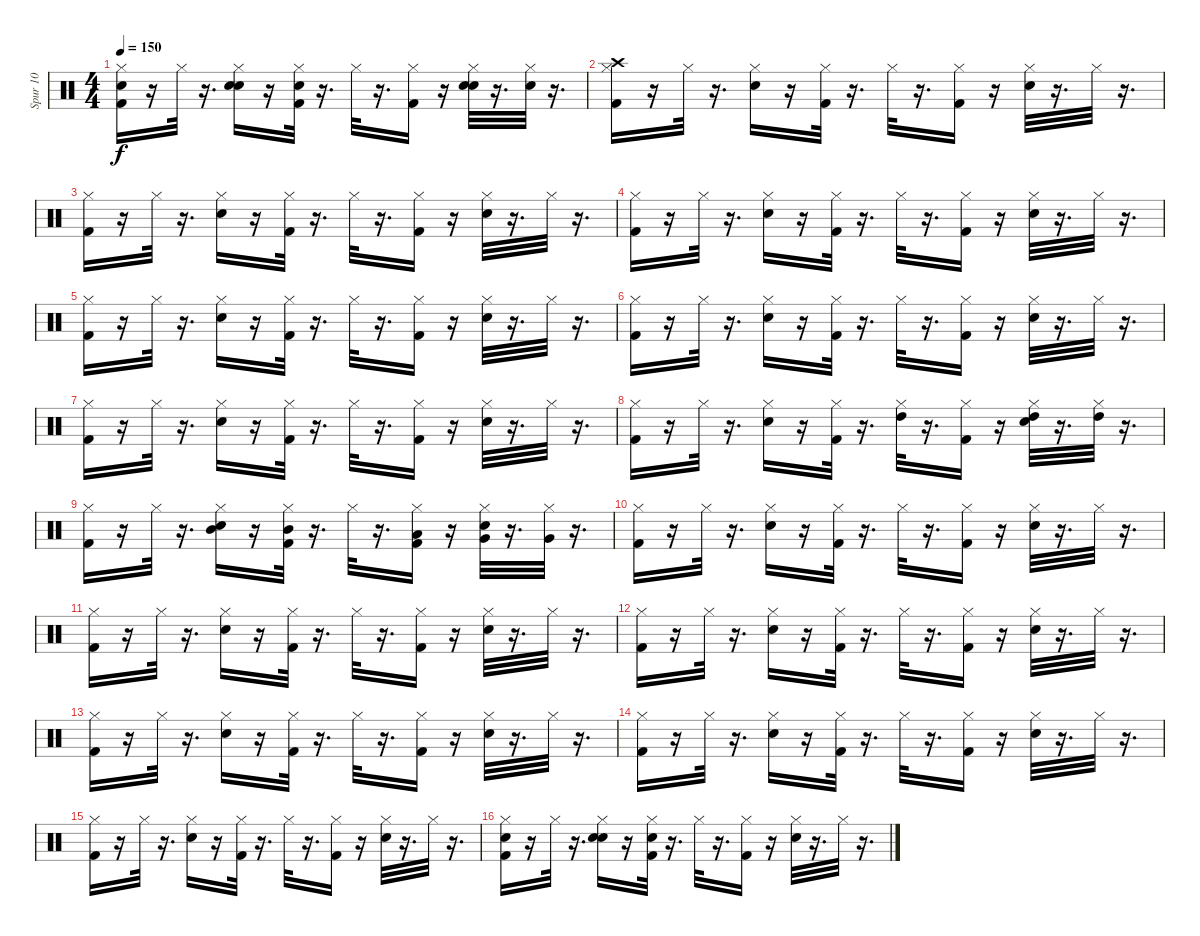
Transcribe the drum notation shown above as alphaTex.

\track ("Spur 10" "Spur 10") {instrument percussion}
\staff {score}
\articulation defaults
\ts (4 4)
\tempo 150
\clef neutral
\ks c
("Hand Clap (hit)" "Kick (hit) 2" "Hi-Hat (closed)").16{dy f} r.16 "Hi-Hat (closed)".32 r.16{d} ("Electric Snare (hit)" "Hand Clap (hit)" "Hi-Hat (closed)").16 r.16 ("Kick (hit) 2" "Hand Clap (hit)" "Hi-Hat (closed)").32 r.16{d} "Hi-Hat (closed)".32 r.16{d} ("Kick (hit) 2" "Hi-Hat (closed)").16 r.16 ("Electric Snare (hit)" "Hi-Hat (closed)" "Hand Clap (hit)").32 r.16{d} ("Hi-Hat (closed)" "Hand Clap (hit)").32 r.16{d} |
("Hi-Hat (closed)" "Crash high (hit)" "Kick (hit) 2").16 r.16 "Hi-Hat (closed)".32 r.16{d} ("Electric Snare (hit)" "Hi-Hat (closed)").16 r.16 ("Hi-Hat (closed)" "Kick (hit) 2").32 r.16{d} "Hi-Hat (closed)".32 r.16{d} ("Hi-Hat (closed)" "Kick (hit) 2").16 r.16 ("Hi-Hat (closed)" "Electric Snare (hit)").32 r.16{d} "Hi-Hat (closed)".32 r.16{d} |
("Hi-Hat (closed)" "Kick (hit) 2").16 r.16 "Hi-Hat (closed)".32 r.16{d} ("Electric Snare (hit)" "Hi-Hat (closed)").16 r.16 ("Kick (hit) 2" "Hi-Hat (closed)").32 r.16{d} "Hi-Hat (closed)".32 r.16{d} ("Kick (hit) 2" "Hi-Hat (closed)").16 r.16 ("Electric Snare (hit)" "Hi-Hat (closed)").32 r.16{d} "Hi-Hat (closed)".32 r.16{d} |
("Hi-Hat (closed)" "Kick (hit) 2").16 r.16 "Hi-Hat (closed)".32 r.16{d} ("Electric Snare (hit)" "Hi-Hat (closed)").16 r.16 ("Kick (hit) 2" "Hi-Hat (closed)").32 r.16{d} "Hi-Hat (closed)".32 r.16{d} ("Kick (hit) 2" "Hi-Hat (closed)").16 r.16 ("Electric Snare (hit)" "Hi-Hat (closed)").32 r.16{d} "Hi-Hat (closed)".32 r.16{d} |
("Kick (hit) 2" "Hi-Hat (closed)").16 r.16 "Hi-Hat (closed)".32 r.16{d} ("Electric Snare (hit)" "Hi-Hat (closed)").16 r.16 ("Kick (hit) 2" "Hi-Hat (closed)").32 r.16{d} "Hi-Hat (closed)".32 r.16{d} ("Kick (hit) 2" "Hi-Hat (closed)").16 r.16 ("Electric Snare (hit)" "Hi-Hat (closed)").32 r.16{d} "Hi-Hat (closed)".32 r.16{d} |
("Hi-Hat (closed)" "Kick (hit) 2").16 r.16 "Hi-Hat (closed)".32 r.16{d} ("Electric Snare (hit)" "Hi-Hat (closed)").16 r.16 ("Hi-Hat (closed)" "Kick (hit) 2").32 r.16{d} "Hi-Hat (closed)".32 r.16{d} ("Hi-Hat (closed)" "Kick (hit) 2").16 r.16 ("Electric Snare (hit)" "Hi-Hat (closed)").32 r.16{d} "Hi-Hat (closed)".32 r.16{d} |
("Hi-Hat (closed)" "Kick (hit) 2").16 r.16 "Hi-Hat (closed)".32 r.16{d} ("Electric Snare (hit)" "Hi-Hat (closed)").16 r.16 ("Kick (hit) 2" "Hi-Hat (closed)").32 r.16{d} "Hi-Hat (closed)".32 r.16{d} ("Kick (hit) 2" "Hi-Hat (closed)").16 r.16 ("Electric Snare (hit)" "Hi-Hat (closed)").32 r.16{d} "Hi-Hat (closed)".32 r.16{d} |
("Kick (hit) 2" "Hi-Hat (closed)").16 r.16 "Hi-Hat (closed)".32 r.16{d} ("Electric Snare (hit)" "Hi-Hat (closed)").16 r.16 ("Kick (hit) 2" "Hi-Hat (closed)").32 r.16{d} ("Hi-Hat (closed)" "High Tom (hit)").32 r.16{d} ("Kick (hit) 2" "Hi-Hat (closed)").16 r.16 ("Electric Snare (hit)" "High Tom (hit)" "Hi-Hat (closed)").32 r.16{d} ("Hi-Hat (closed)" "High Tom (hit)").32 r.16{d} |
("Hi-Hat (closed)" "Kick (hit) 2").16 r.16 "Hi-Hat (closed)".32 r.16{d} ("Electric Snare (hit)" "Hi-Hat (closed)" "Mid Tom (hit)").16 r.16 ("Kick (hit) 2" "Hi-Hat (closed)" "Mid Tom (hit)").32 r.16{d} "Hi-Hat (closed)".32 r.16{d} ("Kick (hit) 2" "Hi-Hat (closed)" "Low Tom (hit)").16 r.16 ("Electric Snare (hit)" "Very Low Tom (hit)" "Hi-Hat (closed)").32 r.16{d} ("Hi-Hat (closed)" "Very Low Tom (hit)").32 r.16{d} |
("Hi-Hat (closed)" "Kick (hit) 2").16 r.16 "Hi-Hat (closed)".32 r.16{d} ("Hi-Hat (closed)" "Electric Snare (hit)").16 r.16 ("Kick (hit) 2" "Hi-Hat (closed)").32 r.16{d} "Hi-Hat (closed)".32 r.16{d} ("Hi-Hat (closed)" "Kick (hit) 2").16 r.16 ("Electric Snare (hit)" "Hi-Hat (closed)").32 r.16{d} "Hi-Hat (closed)".32 r.16{d} |
("Kick (hit) 2" "Hi-Hat (closed)").16 r.16 "Hi-Hat (closed)".32 r.16{d} ("Electric Snare (hit)" "Hi-Hat (closed)").16 r.16 ("Kick (hit) 2" "Hi-Hat (closed)").32 r.16{d} "Hi-Hat (closed)".32 r.16{d} ("Kick (hit) 2" "Hi-Hat (closed)").16 r.16 ("Electric Snare (hit)" "Hi-Hat (closed)").32 r.16{d} "Hi-Hat (closed)".32 r.16{d} |
("Hi-Hat (closed)" "Kick (hit) 2").16 r.16 "Hi-Hat (closed)".32 r.16{d} ("Electric Snare (hit)" "Hi-Hat (closed)").16 r.16 ("Kick (hit) 2" "Hi-Hat (closed)").32 r.16{d} "Hi-Hat (closed)".32 r.16{d} ("Kick (hit) 2" "Hi-Hat (closed)").16 r.16 ("Electric Snare (hit)" "Hi-Hat (closed)").32 r.16{d} "Hi-Hat (closed)".32 r.16{d} |
("Kick (hit) 2" "Hi-Hat (closed)").16 r.16 "Hi-Hat (closed)".32 r.16{d} ("Electric Snare (hit)" "Hi-Hat (closed)").16 r.16 ("Kick (hit) 2" "Hi-Hat (closed)").32 r.16{d} "Hi-Hat (closed)".32 r.16{d} ("Kick (hit) 2" "Hi-Hat (closed)").16 r.16 ("Electric Snare (hit)" "Hi-Hat (closed)").32 r.16{d} "Hi-Hat (closed)".32 r.16{d} |
("Hi-Hat (closed)" "Kick (hit) 2").16 r.16 "Hi-Hat (closed)".32 r.16{d} ("Hi-Hat (closed)" "Electric Snare (hit)").16 r.16 ("Hi-Hat (closed)" "Kick (hit) 2").32 r.16{d} "Hi-Hat (closed)".32 r.16{d} ("Kick (hit) 2" "Hi-Hat (closed)").16 r.16 ("Electric Snare (hit)" "Hi-Hat (closed)").32 r.16{d} "Hi-Hat (closed)".32 r.16{d} |
("Kick (hit) 2" "Hi-Hat (closed)").16 r.16 "Hi-Hat (closed)".32 r.16{d} ("Electric Snare (hit)" "Hi-Hat (closed)").16 r.16 ("Kick (hit) 2" "Hi-Hat (closed)").32 r.16{d} "Hi-Hat (closed)".32 r.16{d} ("Kick (hit) 2" "Hi-Hat (closed)").16 r.16 ("Electric Snare (hit)" "Hi-Hat (closed)").32 r.16{d} "Hi-Hat (closed)".32 r.16{d} |
("Hi-Hat (closed)" "Kick (hit) 2" "Hand Clap (hit)").16 r.16 "Hi-Hat (closed)".32 r.16{d} ("Electric Snare (hit)" "Hand Clap (hit)" "Hi-Hat (closed)").16 r.16 ("Kick (hit) 2" "Hand Clap (hit)" "Hi-Hat (closed)").32 r.16{d} "Hi-Hat (closed)".32 r.16{d} ("Kick (hit) 2" "Hi-Hat (closed)").16 r.16 ("Electric Snare (hit)" "Hi-Hat (closed)").32 r.16{d} "Hi-Hat (closed)".32 r.16{d}
